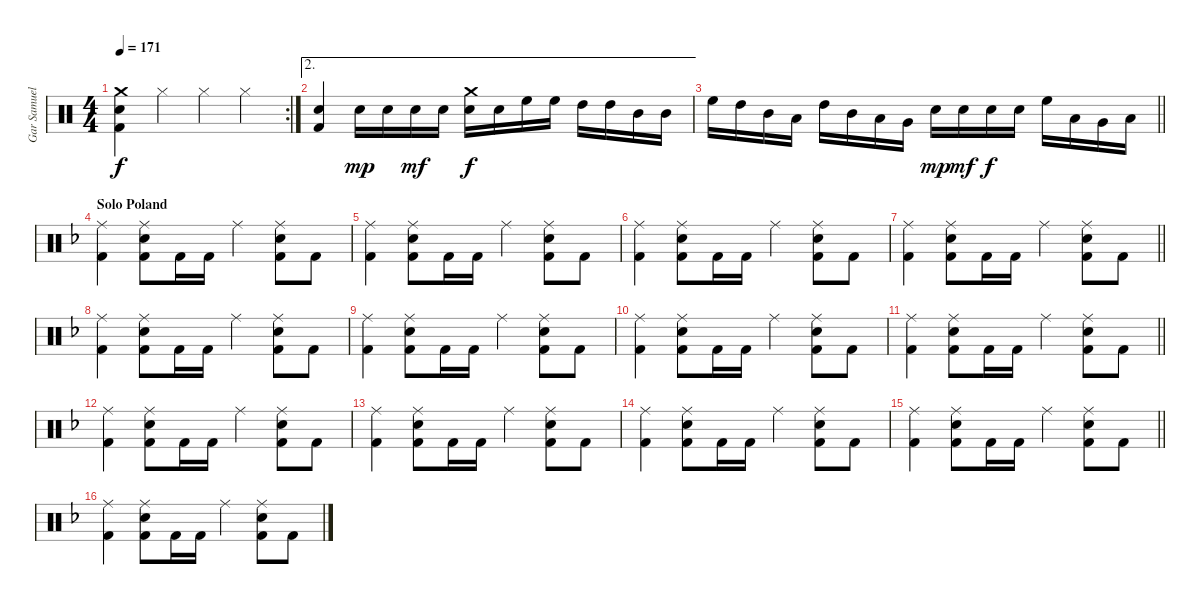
\track ("Gar Samuelson" "Gar Samuel") {instrument percussion}
\staff {score}
\articulation defaults
\rc 2
\ts (4 4)
\tempo 171
\clef neutral
\ks c
("Crash medium (hit)" "Snare (hit) 2" "Kick (hit) 2").4{dy f} "Hi-Hat (closed)".4 "Hi-Hat (closed)".4 "Hi-Hat (closed)".4 |
\ae 2
("Snare (hit) 2" "Kick (hit) 2").4 "Snare (hit) 2".16{dy mp} "Snare (hit) 2".16 "Snare (hit) 2".16{dy mf} "Snare (hit) 2".16 ("Crash medium (hit)" "Snare (hit) 2").16{dy f} "Snare (hit) 2".16 "High Floor Tom (hit)".16 "High Floor Tom (hit)".16 "High Tom (hit)".16 "High Tom (hit)".16 "Mid Tom (hit)".16 "Mid Tom (hit)".16 |
\barLineRight lightlight "High Floor Tom (hit)".16 "High Tom (hit)".16 "Mid Tom (hit)".16 "Low Tom (hit)".16 "High Tom (hit)".16 "Mid Tom (hit)".16 "Low Tom (hit)".16 "Very Low Tom (hit)".16 "Snare (hit) 2".16{dy mp} "Snare (hit) 2".16{dy mf} "Snare (hit) 2".16{dy f} "Snare (hit) 2".16 "High Floor Tom (hit)".16 "Low Tom (hit)".16 "Very Low Tom (hit)".16 "Low Floor Tom (hit)".16
|
\section ("" "Solo Poland")
\ks f
("Ride (middle)" "Kick (hit) 2").4 ("Ride (middle)" "Snare (hit) 2" "Kick (hit) 2").8 "Kick (hit) 2".16 "Kick (hit) 2".16 "Ride (middle)".4 ("Ride (middle)" "Snare (hit) 2" "Kick (hit) 2").8 "Kick (hit) 2".8 |
("Ride (middle)" "Kick (hit) 2").4 ("Ride (middle)" "Snare (hit) 2" "Kick (hit) 2").8 "Kick (hit) 2".16 "Kick (hit) 2".16 "Ride (middle)".4 ("Ride (middle)" "Snare (hit) 2" "Kick (hit) 2").8 "Kick (hit) 2".8 |
("Ride (middle)" "Kick (hit) 2").4 ("Ride (middle)" "Snare (hit) 2" "Kick (hit) 2").8 "Kick (hit) 2".16 "Kick (hit) 2".16 "Ride (middle)".4 ("Ride (middle)" "Snare (hit) 2" "Kick (hit) 2").8 "Kick (hit) 2".8 |
\barLineRight lightlight
("Ride (middle)" "Kick (hit) 2").4 ("Ride (middle)" "Snare (hit) 2" "Kick (hit) 2").8 "Kick (hit) 2".16 "Kick (hit) 2".16 "Ride (middle)".4 ("Ride (middle)" "Snare (hit) 2" "Kick (hit) 2").8 "Kick (hit) 2".8 |
("Ride (middle)" "Kick (hit) 2").4 ("Ride (middle)" "Snare (hit) 2" "Kick (hit) 2").8 "Kick (hit) 2".16 "Kick (hit) 2".16 "Ride (middle)".4 ("Ride (middle)" "Snare (hit) 2" "Kick (hit) 2").8 "Kick (hit) 2".8 |
("Ride (middle)" "Kick (hit) 2").4 ("Ride (middle)" "Snare (hit) 2" "Kick (hit) 2").8 "Kick (hit) 2".16 "Kick (hit) 2".16 "Ride (middle)".4 ("Ride (middle)" "Snare (hit) 2" "Kick (hit) 2").8 "Kick (hit) 2".8 |
("Ride (middle)" "Kick (hit) 2").4 ("Ride (middle)" "Snare (hit) 2" "Kick (hit) 2").8 "Kick (hit) 2".16 "Kick (hit) 2".16 "Ride (middle)".4 ("Ride (middle)" "Snare (hit) 2" "Kick (hit) 2").8 "Kick (hit) 2".8 |
\barLineRight lightlight
("Ride (middle)" "Kick (hit) 2").4 ("Ride (middle)" "Snare (hit) 2" "Kick (hit) 2").8 "Kick (hit) 2".16 "Kick (hit) 2".16 "Ride (middle)".4 ("Ride (middle)" "Snare (hit) 2" "Kick (hit) 2").8 "Kick (hit) 2".8 |
("Ride (middle)" "Kick (hit) 2").4 ("Ride (middle)" "Snare (hit) 2" "Kick (hit) 2").8 "Kick (hit) 2".16 "Kick (hit) 2".16 "Ride (middle)".4 ("Ride (middle)" "Snare (hit) 2" "Kick (hit) 2").8 "Kick (hit) 2".8 |
("Ride (middle)" "Kick (hit) 2").4 ("Ride (middle)" "Snare (hit) 2" "Kick (hit) 2").8 "Kick (hit) 2".16 "Kick (hit) 2".16 "Ride (middle)".4 ("Ride (middle)" "Snare (hit) 2" "Kick (hit) 2").8 "Kick (hit) 2".8 |
("Ride (middle)" "Kick (hit) 2").4 ("Ride (middle)" "Snare (hit) 2" "Kick (hit) 2").8 "Kick (hit) 2".16 "Kick (hit) 2".16 "Ride (middle)".4 ("Ride (middle)" "Snare (hit) 2" "Kick (hit) 2").8 "Kick (hit) 2".8 |
\barLineRight lightlight
("Ride (middle)" "Kick (hit) 2").4 ("Ride (middle)" "Snare (hit) 2" "Kick (hit) 2").8 "Kick (hit) 2".16 "Kick (hit) 2".16 "Ride (middle)".4 ("Ride (middle)" "Snare (hit) 2" "Kick (hit) 2").8 "Kick (hit) 2".8 |
("Ride (middle)" "Kick (hit) 2").4 ("Ride (middle)" "Snare (hit) 2" "Kick (hit) 2").8 "Kick (hit) 2".16 "Kick (hit) 2".16 "Ride (middle)".4 ("Ride (middle)" "Snare (hit) 2" "Kick (hit) 2").8 "Kick (hit) 2".8
